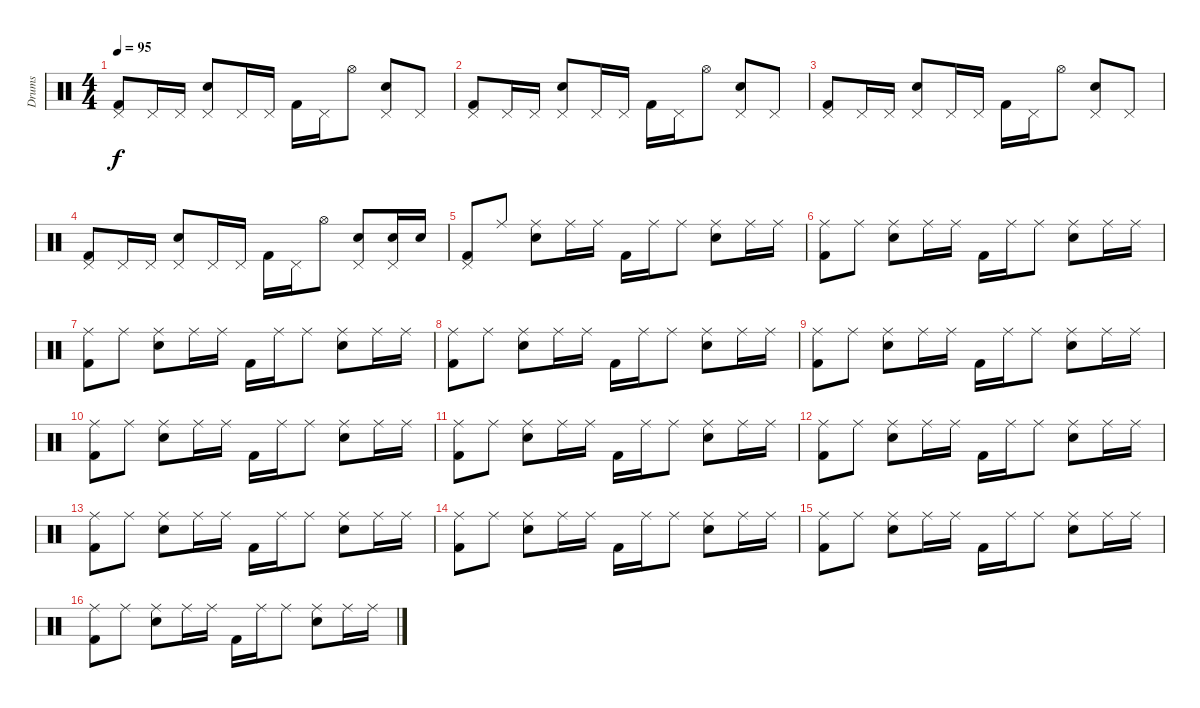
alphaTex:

\track ("Drums" "Drums") {instrument percussion}
\staff {score}
\articulation defaults
\ts (4 4)
\tempo 95
\clef neutral
\ks c
("Pedal Hi-Hat (hit)" "Kick (hit) 2").8{dy f} "Pedal Hi-Hat (hit)".16 "Pedal Hi-Hat (hit)".16 ("Pedal Hi-Hat (hit)" "Snare (hit) 2").8 "Pedal Hi-Hat (hit)".16 "Pedal Hi-Hat (hit)".16 "Kick (hit) 2".16 "Pedal Hi-Hat (hit)".16 "Hi-Hat (open)".8 ("Pedal Hi-Hat (hit)" "Snare (hit) 2").8 "Pedal Hi-Hat (hit)".8 |
("Pedal Hi-Hat (hit)" "Kick (hit) 2").8 "Pedal Hi-Hat (hit)".16 "Pedal Hi-Hat (hit)".16 ("Pedal Hi-Hat (hit)" "Snare (hit) 2").8 "Pedal Hi-Hat (hit)".16 "Pedal Hi-Hat (hit)".16 "Kick (hit) 2".16 "Pedal Hi-Hat (hit)".16 "Hi-Hat (open)".8 ("Pedal Hi-Hat (hit)" "Snare (hit) 2").8 "Pedal Hi-Hat (hit)".8 |
("Pedal Hi-Hat (hit)" "Kick (hit) 2").8 "Pedal Hi-Hat (hit)".16 "Pedal Hi-Hat (hit)".16 ("Pedal Hi-Hat (hit)" "Snare (hit) 2").8 "Pedal Hi-Hat (hit)".16 "Pedal Hi-Hat (hit)".16 "Kick (hit) 2".16 "Pedal Hi-Hat (hit)".16 "Hi-Hat (open)".8 ("Pedal Hi-Hat (hit)" "Snare (hit) 2").8 "Pedal Hi-Hat (hit)".8 |
("Pedal Hi-Hat (hit)" "Kick (hit) 2").8 "Pedal Hi-Hat (hit)".16 "Pedal Hi-Hat (hit)".16 ("Pedal Hi-Hat (hit)" "Snare (hit) 2").8 "Pedal Hi-Hat (hit)".16 "Pedal Hi-Hat (hit)".16 "Kick (hit) 2".16 "Pedal Hi-Hat (hit)".16 "Hi-Hat (open)".8 ("Pedal Hi-Hat (hit)" "Snare (hit) 2").8 ("Pedal Hi-Hat (hit)" "Snare (hit) 2").16 "Snare (hit) 2".16 |
("Pedal Hi-Hat (hit)" "Kick (hit) 2").8 "Ride (middle)".8 ("Ride (middle)" "Snare (hit) 2").8 "Ride (middle)".16 "Ride (middle)".16 "Kick (hit) 2".16 "Ride (middle)".16 "Ride (middle)".8 ("Ride (middle)" "Snare (hit) 2").8 "Ride (middle)".16 "Ride (middle)".16 |
("Ride (middle)" "Kick (hit) 2").8 "Ride (middle)".8 ("Ride (middle)" "Snare (hit) 2").8 "Ride (middle)".16 "Ride (middle)".16 "Kick (hit) 2".16 "Ride (middle)".16 "Ride (middle)".8 ("Ride (middle)" "Snare (hit) 2").8 "Ride (middle)".16 "Ride (middle)".16 |
("Ride (middle)" "Kick (hit) 2").8 "Ride (middle)".8 ("Ride (middle)" "Snare (hit) 2").8 "Ride (middle)".16 "Ride (middle)".16 "Kick (hit) 2".16 "Ride (middle)".16 "Ride (middle)".8 ("Ride (middle)" "Snare (hit) 2").8 "Ride (middle)".16 "Ride (middle)".16 |
("Ride (middle)" "Kick (hit) 2").8 "Ride (middle)".8 ("Ride (middle)" "Snare (hit) 2").8 "Ride (middle)".16 "Ride (middle)".16 "Kick (hit) 2".16 "Ride (middle)".16 "Ride (middle)".8 ("Ride (middle)" "Snare (hit) 2").8 "Ride (middle)".16 "Ride (middle)".16 |
("Ride (middle)" "Kick (hit) 2").8 "Ride (middle)".8 ("Ride (middle)" "Snare (hit) 2").8 "Ride (middle)".16 "Ride (middle)".16 "Kick (hit) 2".16 "Ride (middle)".16 "Ride (middle)".8 ("Ride (middle)" "Snare (hit) 2").8 "Ride (middle)".16 "Ride (middle)".16 |
("Ride (middle)" "Kick (hit) 2").8 "Ride (middle)".8 ("Ride (middle)" "Snare (hit) 2").8 "Ride (middle)".16 "Ride (middle)".16 "Kick (hit) 2".16 "Ride (middle)".16 "Ride (middle)".8 ("Ride (middle)" "Snare (hit) 2").8 "Ride (middle)".16 "Ride (middle)".16 |
("Ride (middle)" "Kick (hit) 2").8 "Ride (middle)".8 ("Ride (middle)" "Snare (hit) 2").8 "Ride (middle)".16 "Ride (middle)".16 "Kick (hit) 2".16 "Ride (middle)".16 "Ride (middle)".8 ("Ride (middle)" "Snare (hit) 2").8 "Ride (middle)".16 "Ride (middle)".16 |
("Ride (middle)" "Kick (hit) 2").8 "Ride (middle)".8 ("Ride (middle)" "Snare (hit) 2").8 "Ride (middle)".16 "Ride (middle)".16 "Kick (hit) 2".16 "Ride (middle)".16 "Ride (middle)".8 ("Ride (middle)" "Snare (hit) 2").8 "Ride (middle)".16 "Ride (middle)".16 |
("Ride (middle)" "Kick (hit) 2").8 "Ride (middle)".8 ("Ride (middle)" "Snare (hit) 2").8 "Ride (middle)".16 "Ride (middle)".16 "Kick (hit) 2".16 "Ride (middle)".16 "Ride (middle)".8 ("Ride (middle)" "Snare (hit) 2").8 "Ride (middle)".16 "Ride (middle)".16 |
("Ride (middle)" "Kick (hit) 2").8 "Ride (middle)".8 ("Ride (middle)" "Snare (hit) 2").8 "Ride (middle)".16 "Ride (middle)".16 "Kick (hit) 2".16 "Ride (middle)".16 "Ride (middle)".8 ("Ride (middle)" "Snare (hit) 2").8 "Ride (middle)".16 "Ride (middle)".16 |
("Ride (middle)" "Kick (hit) 2").8 "Ride (middle)".8 ("Ride (middle)" "Snare (hit) 2").8 "Ride (middle)".16 "Ride (middle)".16 "Kick (hit) 2".16 "Ride (middle)".16 "Ride (middle)".8 ("Ride (middle)" "Snare (hit) 2").8 "Ride (middle)".16 "Ride (middle)".16 |
("Ride (middle)" "Kick (hit) 2").8 "Ride (middle)".8 ("Ride (middle)" "Snare (hit) 2").8 "Ride (middle)".16 "Ride (middle)".16 "Kick (hit) 2".16 "Ride (middle)".16 "Ride (middle)".8 ("Ride (middle)" "Snare (hit) 2").8 "Ride (middle)".16 "Ride (middle)".16
